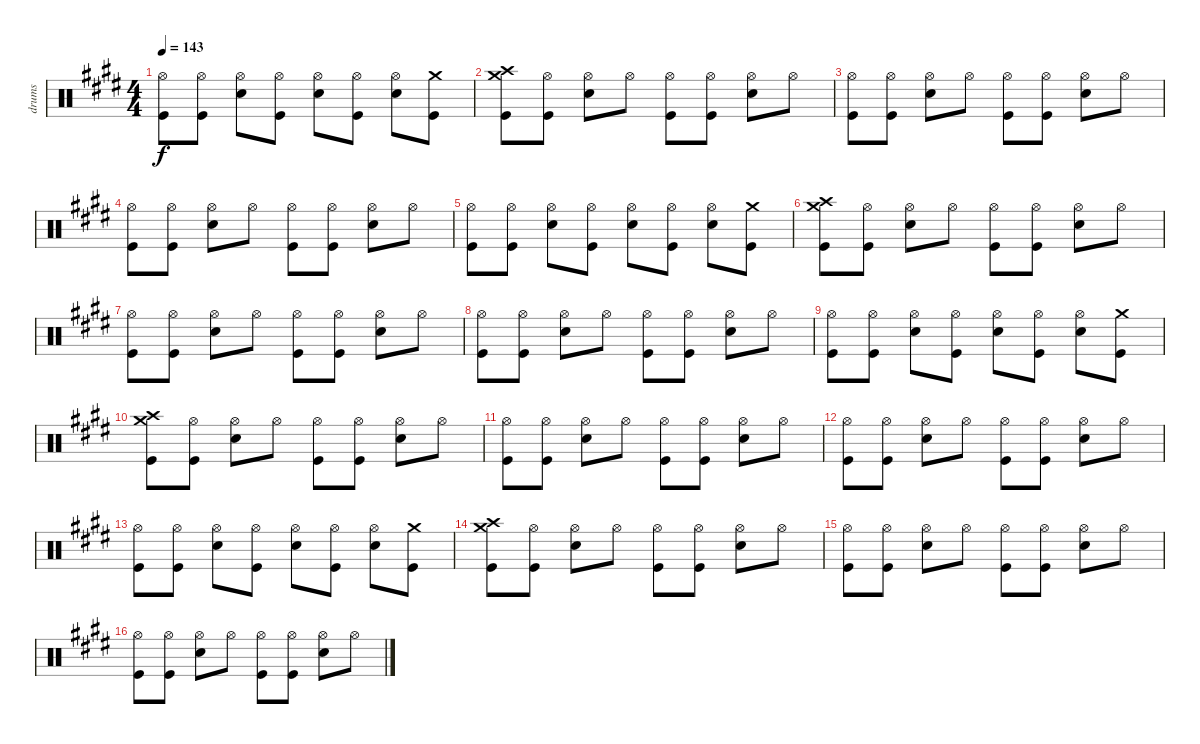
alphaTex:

\track ("drums" "drums") {instrument percussion}
\staff {score}
\articulation defaults
\ts (4 4)
\tempo 143
\clef neutral
\ks c#minor
("Hi-Hat (open)" "Kick (hit)").8{dy f} ("Hi-Hat (open)" "Kick (hit)").8 ("Hi-Hat (open)" "Electric Snare (hit)").8 ("Hi-Hat (open)" "Kick (hit)").8 ("Hi-Hat (open)" "Electric Snare (hit)").8 ("Hi-Hat (open)" "Kick (hit)").8 ("Hi-Hat (open)" "Electric Snare (hit)").8 ("Crash medium (hit)" "Kick (hit)").8 |
("Crash medium (hit)" "Crash high (hit)" "Kick (hit)").8 ("Hi-Hat (open)" "Kick (hit)").8 ("Hi-Hat (open)" "Electric Snare (hit)").8 "Hi-Hat (open)".8 ("Hi-Hat (open)" "Kick (hit)").8 ("Hi-Hat (open)" "Kick (hit)").8 ("Hi-Hat (open)" "Electric Snare (hit)").8 "Hi-Hat (open)".8 |
("Hi-Hat (open)" "Kick (hit)").8 ("Hi-Hat (open)" "Kick (hit)").8 ("Hi-Hat (open)" "Electric Snare (hit)").8 "Hi-Hat (open)".8 ("Hi-Hat (open)" "Kick (hit)").8 ("Hi-Hat (open)" "Kick (hit)").8 ("Hi-Hat (open)" "Electric Snare (hit)").8 "Hi-Hat (open)".8 |
("Hi-Hat (open)" "Kick (hit)").8 ("Hi-Hat (open)" "Kick (hit)").8 ("Hi-Hat (open)" "Electric Snare (hit)").8 "Hi-Hat (open)".8 ("Hi-Hat (open)" "Kick (hit)").8 ("Hi-Hat (open)" "Kick (hit)").8 ("Hi-Hat (open)" "Electric Snare (hit)").8 "Hi-Hat (open)".8 |
("Hi-Hat (open)" "Kick (hit)").8 ("Hi-Hat (open)" "Kick (hit)").8 ("Hi-Hat (open)" "Electric Snare (hit)").8 ("Hi-Hat (open)" "Kick (hit)").8 ("Hi-Hat (open)" "Electric Snare (hit)").8 ("Hi-Hat (open)" "Kick (hit)").8 ("Hi-Hat (open)" "Electric Snare (hit)").8 ("Crash medium (hit)" "Kick (hit)").8 |
("Crash medium (hit)" "Crash high (hit)" "Kick (hit)").8 ("Hi-Hat (open)" "Kick (hit)").8 ("Hi-Hat (open)" "Electric Snare (hit)").8 "Hi-Hat (open)".8 ("Hi-Hat (open)" "Kick (hit)").8 ("Hi-Hat (open)" "Kick (hit)").8 ("Hi-Hat (open)" "Electric Snare (hit)").8 "Hi-Hat (open)".8 |
("Hi-Hat (open)" "Kick (hit)").8 ("Hi-Hat (open)" "Kick (hit)").8 ("Hi-Hat (open)" "Electric Snare (hit)").8 "Hi-Hat (open)".8 ("Hi-Hat (open)" "Kick (hit)").8 ("Hi-Hat (open)" "Kick (hit)").8 ("Hi-Hat (open)" "Electric Snare (hit)").8 "Hi-Hat (open)".8 |
("Hi-Hat (open)" "Kick (hit)").8 ("Hi-Hat (open)" "Kick (hit)").8 ("Hi-Hat (open)" "Electric Snare (hit)").8 "Hi-Hat (open)".8 ("Hi-Hat (open)" "Kick (hit)").8 ("Hi-Hat (open)" "Kick (hit)").8 ("Hi-Hat (open)" "Electric Snare (hit)").8 "Hi-Hat (open)".8 |
("Hi-Hat (open)" "Kick (hit)").8 ("Hi-Hat (open)" "Kick (hit)").8 ("Hi-Hat (open)" "Electric Snare (hit)").8 ("Hi-Hat (open)" "Kick (hit)").8 ("Hi-Hat (open)" "Electric Snare (hit)").8 ("Hi-Hat (open)" "Kick (hit)").8 ("Hi-Hat (open)" "Electric Snare (hit)").8 ("Crash medium (hit)" "Kick (hit)").8 |
("Crash medium (hit)" "Crash high (hit)" "Kick (hit)").8 ("Hi-Hat (open)" "Kick (hit)").8 ("Hi-Hat (open)" "Electric Snare (hit)").8 "Hi-Hat (open)".8 ("Hi-Hat (open)" "Kick (hit)").8 ("Hi-Hat (open)" "Kick (hit)").8 ("Hi-Hat (open)" "Electric Snare (hit)").8 "Hi-Hat (open)".8 |
("Hi-Hat (open)" "Kick (hit)").8 ("Hi-Hat (open)" "Kick (hit)").8 ("Hi-Hat (open)" "Electric Snare (hit)").8 "Hi-Hat (open)".8 ("Hi-Hat (open)" "Kick (hit)").8 ("Hi-Hat (open)" "Kick (hit)").8 ("Hi-Hat (open)" "Electric Snare (hit)").8 "Hi-Hat (open)".8 |
("Hi-Hat (open)" "Kick (hit)").8 ("Hi-Hat (open)" "Kick (hit)").8 ("Hi-Hat (open)" "Electric Snare (hit)").8 "Hi-Hat (open)".8 ("Hi-Hat (open)" "Kick (hit)").8 ("Hi-Hat (open)" "Kick (hit)").8 ("Hi-Hat (open)" "Electric Snare (hit)").8 "Hi-Hat (open)".8 |
("Hi-Hat (open)" "Kick (hit)").8 ("Hi-Hat (open)" "Kick (hit)").8 ("Hi-Hat (open)" "Electric Snare (hit)").8 ("Hi-Hat (open)" "Kick (hit)").8 ("Hi-Hat (open)" "Electric Snare (hit)").8 ("Hi-Hat (open)" "Kick (hit)").8 ("Hi-Hat (open)" "Electric Snare (hit)").8 ("Crash medium (hit)" "Kick (hit)").8 |
("Crash medium (hit)" "Crash high (hit)" "Kick (hit)").8 ("Hi-Hat (open)" "Kick (hit)").8 ("Hi-Hat (open)" "Electric Snare (hit)").8 "Hi-Hat (open)".8 ("Hi-Hat (open)" "Kick (hit)").8 ("Hi-Hat (open)" "Kick (hit)").8 ("Hi-Hat (open)" "Electric Snare (hit)").8 "Hi-Hat (open)".8 |
("Hi-Hat (open)" "Kick (hit)").8 ("Hi-Hat (open)" "Kick (hit)").8 ("Hi-Hat (open)" "Electric Snare (hit)").8 "Hi-Hat (open)".8 ("Hi-Hat (open)" "Kick (hit)").8 ("Hi-Hat (open)" "Kick (hit)").8 ("Hi-Hat (open)" "Electric Snare (hit)").8 "Hi-Hat (open)".8 |
("Hi-Hat (open)" "Kick (hit)").8 ("Hi-Hat (open)" "Kick (hit)").8 ("Hi-Hat (open)" "Electric Snare (hit)").8 "Hi-Hat (open)".8 ("Hi-Hat (open)" "Kick (hit)").8 ("Hi-Hat (open)" "Kick (hit)").8 ("Hi-Hat (open)" "Electric Snare (hit)").8 "Hi-Hat (open)".8
